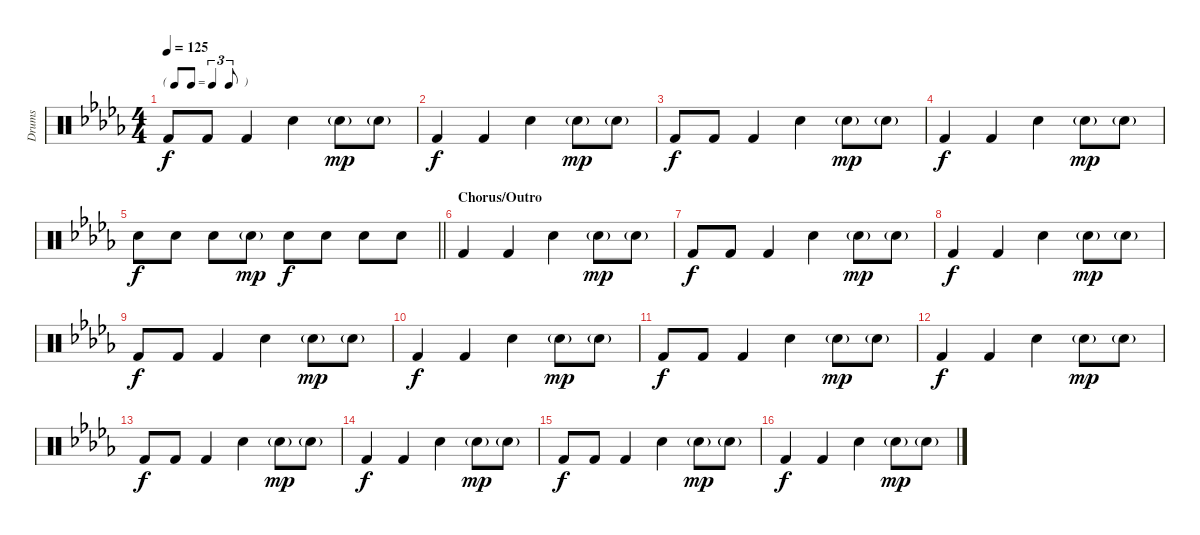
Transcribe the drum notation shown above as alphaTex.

\track ("Drums" "Drums") {instrument percussion}
\staff {score}
\articulation defaults
\ts (4 4)
\tf triplet8th
\tempo 125
\clef neutral
\ks db "Kick (hit) 2".8{dy f} "Kick (hit) 2".8 "Kick (hit) 2".4 "Snare (hit) 2".4 "Snare (hit) 2"{g}.8{dy mp} "Snare (hit) 2"{g}.8
|
"Kick (hit) 2".4{dy f} "Kick (hit) 2".4 "Snare (hit) 2".4 "Snare (hit) 2"{g}.8{dy mp} "Snare (hit) 2"{g}.8 |
"Kick (hit) 2".8{dy f} "Kick (hit) 2".8 "Kick (hit) 2".4 "Snare (hit) 2".4 "Snare (hit) 2"{g}.8{dy mp} "Snare (hit) 2"{g}.8 |
"Kick (hit) 2".4{dy f} "Kick (hit) 2".4 "Snare (hit) 2".4 "Snare (hit) 2"{g}.8{dy mp} "Snare (hit) 2"{g}.8 |
\barLineRight lightlight "Snare (hit) 2".8{dy f} "Snare (hit) 2".8 "Snare (hit) 2".8 "Snare (hit) 2"{g}.8{dy mp} "Snare (hit) 2".8{dy f} "Snare (hit) 2".8 "Snare (hit) 2".8 "Snare (hit) 2".8
|
\section ("" "Chorus/Outro")
"Kick (hit) 2".4 "Kick (hit) 2".4 "Snare (hit) 2".4 "Snare (hit) 2"{g}.8{dy mp} "Snare (hit) 2"{g}.8 |
"Kick (hit) 2".8{dy f} "Kick (hit) 2".8 "Kick (hit) 2".4 "Snare (hit) 2".4 "Snare (hit) 2"{g}.8{dy mp} "Snare (hit) 2"{g}.8 |
"Kick (hit) 2".4{dy f} "Kick (hit) 2".4 "Snare (hit) 2".4 "Snare (hit) 2"{g}.8{dy mp} "Snare (hit) 2"{g}.8 |
"Kick (hit) 2".8{dy f} "Kick (hit) 2".8 "Kick (hit) 2".4 "Snare (hit) 2".4 "Snare (hit) 2"{g}.8{dy mp} "Snare (hit) 2"{g}.8 |
"Kick (hit) 2".4{dy f} "Kick (hit) 2".4 "Snare (hit) 2".4 "Snare (hit) 2"{g}.8{dy mp} "Snare (hit) 2"{g}.8 |
"Kick (hit) 2".8{dy f} "Kick (hit) 2".8 "Kick (hit) 2".4 "Snare (hit) 2".4 "Snare (hit) 2"{g}.8{dy mp} "Snare (hit) 2"{g}.8 |
"Kick (hit) 2".4{dy f} "Kick (hit) 2".4 "Snare (hit) 2".4 "Snare (hit) 2"{g}.8{dy mp} "Snare (hit) 2"{g}.8 |
"Kick (hit) 2".8{dy f} "Kick (hit) 2".8 "Kick (hit) 2".4 "Snare (hit) 2".4 "Snare (hit) 2"{g}.8{dy mp} "Snare (hit) 2"{g}.8 |
"Kick (hit) 2".4{dy f} "Kick (hit) 2".4 "Snare (hit) 2".4 "Snare (hit) 2"{g}.8{dy mp} "Snare (hit) 2"{g}.8 |
"Kick (hit) 2".8{dy f} "Kick (hit) 2".8 "Kick (hit) 2".4 "Snare (hit) 2".4 "Snare (hit) 2"{g}.8{dy mp} "Snare (hit) 2"{g}.8 |
"Kick (hit) 2".4{dy f} "Kick (hit) 2".4 "Snare (hit) 2".4 "Snare (hit) 2"{g}.8{dy mp} "Snare (hit) 2"{g}.8
